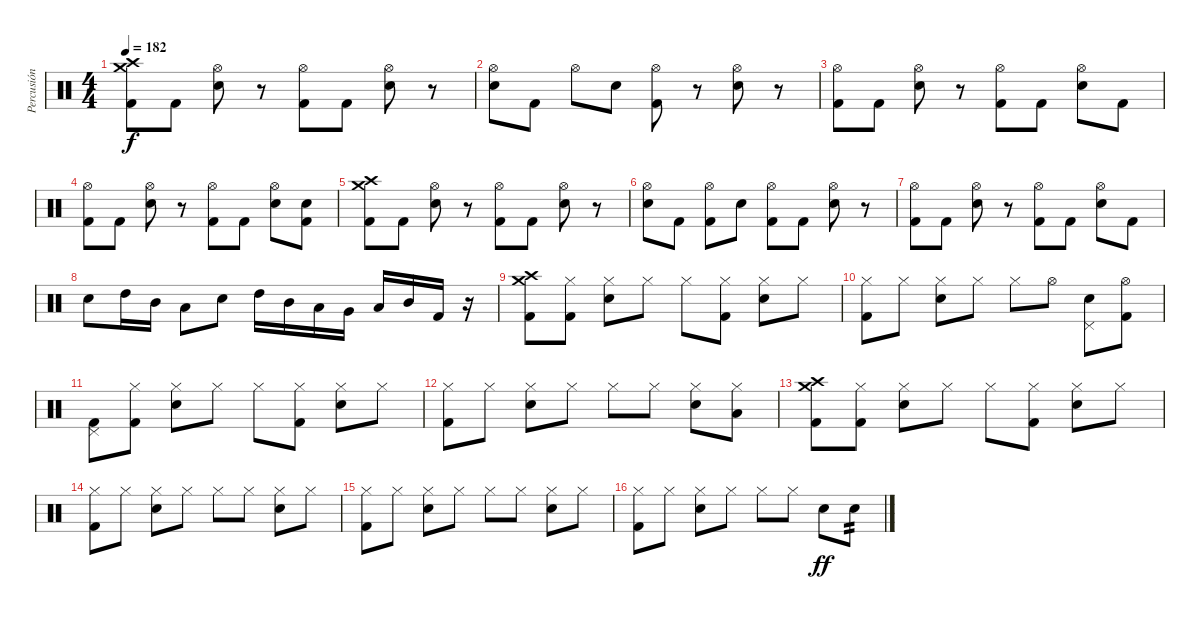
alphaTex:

\track ("Percusión Kuliá" "Percusión ") {instrument percussion}
\staff {score}
\articulation defaults
\ts (4 4)
\tempo 182
\clef neutral
\ks c
("Crash high (hit)" "Crash medium (hit)" "Kick (hit) 2").8{dy f} "Kick (hit) 2".8 ("Hi-Hat (open)" "Electric Snare (hit)").8 r.8 ("Hi-Hat (open)" "Kick (hit) 2").8 "Kick (hit) 2".8 ("Hi-Hat (open)" "Electric Snare (hit)").8 r.8 |
("Hi-Hat (open)" "Electric Snare (hit)").8 "Kick (hit) 2".8 "Hi-Hat (open)".8 "Electric Snare (hit)".8 ("Hi-Hat (open)" "Kick (hit) 2").8 r.8 ("Hi-Hat (open)" "Electric Snare (hit)").8 r.8 |
("Hi-Hat (open)" "Kick (hit) 2").8 "Kick (hit) 2".8 ("Hi-Hat (open)" "Electric Snare (hit)").8 r.8 ("Hi-Hat (open)" "Kick (hit) 2").8 "Kick (hit) 2".8 ("Hi-Hat (open)" "Electric Snare (hit)").8 "Kick (hit) 2".8 |
("Hi-Hat (open)" "Kick (hit) 2").8 "Kick (hit) 2".8 ("Hi-Hat (open)" "Electric Snare (hit)").8 r.8 ("Hi-Hat (open)" "Kick (hit) 2").8 "Kick (hit) 2".8 ("Hi-Hat (open)" "Electric Snare (hit)").8 ("Electric Snare (hit)" "Kick (hit) 2").8 |
("Crash high (hit)" "Crash medium (hit)" "Kick (hit) 2").8 "Kick (hit) 2".8 ("Hi-Hat (open)" "Electric Snare (hit)").8 r.8 ("Hi-Hat (open)" "Kick (hit) 2").8 "Kick (hit) 2".8 ("Hi-Hat (open)" "Electric Snare (hit)").8 r.8 |
("Hi-Hat (open)" "Electric Snare (hit)").8 "Kick (hit) 2".8 ("Hi-Hat (open)" "Kick (hit) 2").8 "Electric Snare (hit)".8 ("Hi-Hat (open)" "Kick (hit) 2").8 "Kick (hit) 2".8 ("Hi-Hat (open)" "Electric Snare (hit)").8 r.8 |
("Hi-Hat (open)" "Kick (hit) 2").8 "Kick (hit) 2".8 ("Hi-Hat (open)" "Electric Snare (hit)").8 r.8 ("Hi-Hat (open)" "Kick (hit) 2").8 "Kick (hit) 2".8 ("Hi-Hat (open)" "Electric Snare (hit)").8 "Kick (hit) 2".8 |
"Electric Snare (hit)".8 "High Tom (hit)".16 "Mid Tom (hit)".16 "Low Tom (hit)".8 "Electric Snare (hit)".8 "High Tom (hit)".16 "Mid Tom (hit)".16 "Low Tom (hit)".16 "Very Low Tom (hit)".16 "Low Tom (hit)".16 "Mid Tom (hit)".16 "Kick (hit) 2".16 r.16 |
("Crash high (hit)" "Crash medium (hit)" "Kick (hit) 2").8 ("Hi-Hat (closed)" "Kick (hit) 2").8 ("Hi-Hat (closed)" "Electric Snare (hit)").8 "Hi-Hat (closed)".8 "Hi-Hat (closed)".8 ("Hi-Hat (closed)" "Kick (hit) 2").8 ("Hi-Hat (closed)" "Electric Snare (hit)").8 "Hi-Hat (closed)".8 |
("Hi-Hat (closed)" "Kick (hit) 2").8 "Hi-Hat (closed)".8 ("Hi-Hat (closed)" "Electric Snare (hit)").8 "Hi-Hat (closed)".8 "Hi-Hat (closed)".8 "Hi-Hat (open)".8 ("Pedal Hi-Hat (hit)" "Electric Snare (hit)").8 ("Hi-Hat (open)" "Kick (hit) 2").8 |
("Pedal Hi-Hat (hit)" "Kick (hit) 2").8 ("Hi-Hat (closed)" "Kick (hit) 2").8 ("Hi-Hat (closed)" "Electric Snare (hit)").8 "Hi-Hat (closed)".8 "Hi-Hat (closed)".8 ("Hi-Hat (closed)" "Kick (hit) 2").8 ("Hi-Hat (closed)" "Electric Snare (hit)").8 "Hi-Hat (closed)".8 |
("Hi-Hat (closed)" "Kick (hit) 2").8 "Hi-Hat (closed)".8 ("Hi-Hat (closed)" "Electric Snare (hit)").8 "Hi-Hat (closed)".8 "Hi-Hat (closed)".8 "Hi-Hat (closed)".8 ("Hi-Hat (closed)" "Electric Snare (hit)").8 ("Hi-Hat (closed)" "Low Tom (hit)").8 |
("Crash high (hit)" "Crash medium (hit)" "Kick (hit) 2").8 ("Hi-Hat (closed)" "Kick (hit) 2").8 ("Hi-Hat (closed)" "Electric Snare (hit)").8 "Hi-Hat (closed)".8 "Hi-Hat (closed)".8 ("Hi-Hat (closed)" "Kick (hit) 2").8 ("Hi-Hat (closed)" "Electric Snare (hit)").8 "Hi-Hat (closed)".8 |
("Hi-Hat (closed)" "Kick (hit) 2").8 "Hi-Hat (closed)".8 ("Hi-Hat (closed)" "Electric Snare (hit)").8 "Hi-Hat (closed)".8 "Hi-Hat (closed)".8 "Hi-Hat (closed)".8 ("Hi-Hat (closed)" "Electric Snare (hit)").8 "Hi-Hat (closed)".8 |
("Hi-Hat (closed)" "Kick (hit) 2").8 "Hi-Hat (closed)".8 ("Hi-Hat (closed)" "Electric Snare (hit)").8 "Hi-Hat (closed)".8 "Hi-Hat (closed)".8 "Hi-Hat (closed)".8 ("Hi-Hat (closed)" "Electric Snare (hit)").8 "Hi-Hat (closed)".8 |
("Hi-Hat (closed)" "Kick (hit) 2").8 "Hi-Hat (closed)".8 ("Hi-Hat (closed)" "Electric Snare (hit)").8 "Hi-Hat (closed)".8 "Hi-Hat (closed)".8 "Hi-Hat (closed)".8 "Electric Snare (hit)".8{dy ff} "Electric Snare (hit)".8{tp 2}
